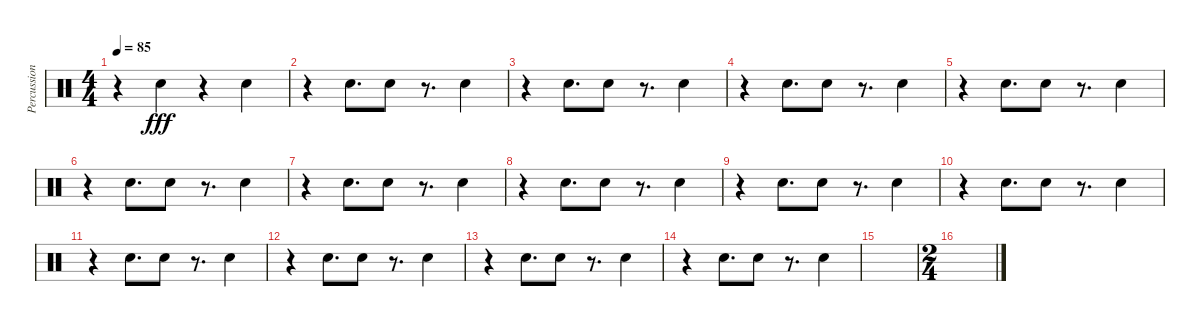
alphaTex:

\track ("Percussion" "Percussion") {instrument percussion}
\staff {score}
\articulation defaults
\ts (4 4)
\tempo 85
\clef neutral
\ks c
r.4{dy fff} "Snare (hit) 2".4 r.4 "Snare (hit) 2".4 |
r.4 "Snare (hit) 2".8{d} "Snare (hit) 2".8 r.8{d} "Snare (hit) 2".4 |
r.4 "Snare (hit) 2".8{d} "Snare (hit) 2".8 r.8{d} "Snare (hit) 2".4 |
r.4 "Snare (hit) 2".8{d} "Snare (hit) 2".8 r.8{d} "Snare (hit) 2".4 |
r.4 "Snare (hit) 2".8{d} "Snare (hit) 2".8 r.8{d} "Snare (hit) 2".4 |
r.4 "Snare (hit) 2".8{d} "Snare (hit) 2".8 r.8{d} "Snare (hit) 2".4 |
r.4 "Snare (hit) 2".8{d} "Snare (hit) 2".8 r.8{d} "Snare (hit) 2".4 |
r.4 "Snare (hit) 2".8{d} "Snare (hit) 2".8 r.8{d} "Snare (hit) 2".4 |
r.4 "Snare (hit) 2".8{d} "Snare (hit) 2".8 r.8{d} "Snare (hit) 2".4 |
r.4 "Snare (hit) 2".8{d} "Snare (hit) 2".8 r.8{d} "Snare (hit) 2".4 |
r.4 "Snare (hit) 2".8{d} "Snare (hit) 2".8 r.8{d} "Snare (hit) 2".4 |
r.4 "Snare (hit) 2".8{d} "Snare (hit) 2".8 r.8{d} "Snare (hit) 2".4 |
r.4 "Snare (hit) 2".8{d} "Snare (hit) 2".8 r.8{d} "Snare (hit) 2".4 |
r.4 "Snare (hit) 2".8{d} "Snare (hit) 2".8 r.8{d} "Snare (hit) 2".4 |
|
\ts (2 4)
